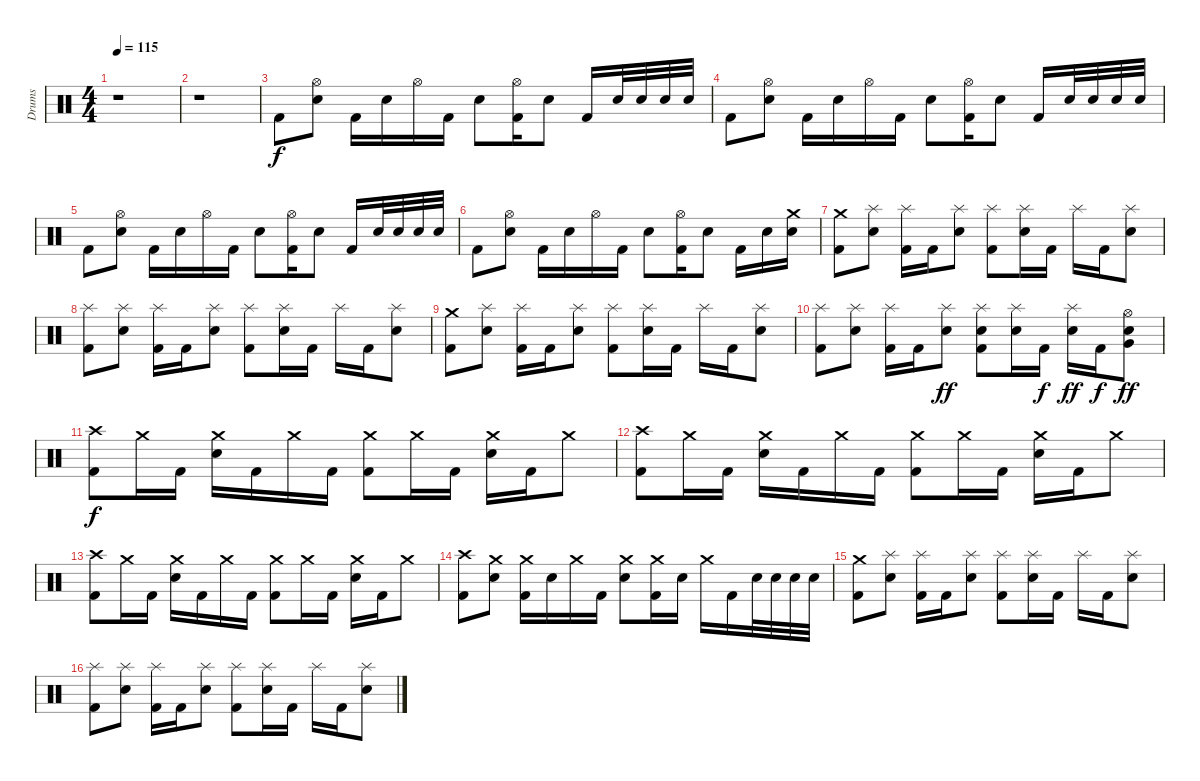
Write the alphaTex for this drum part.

\track ("Drums" "Drums") {instrument percussion}
\staff {score}
\articulation defaults
\ts (4 4)
\tempo 115
\clef neutral
\ks c
r.1{dy f} |
r.1 |
"Kick (hit) 2".8{volume 11} ("Hi-Hat (open)" "Electric Snare (hit)").8 "Kick (hit) 2".16 "Electric Snare (hit)".16 "Hi-Hat (open)".16 "Kick (hit) 2".16 "Electric Snare (hit)".8 ("Hi-Hat (open)" "Kick (hit) 2").16 "Electric Snare (hit)".8 "Kick (hit) 2".16 "Electric Snare (hit)".32 "Electric Snare (hit)".32 "Electric Snare (hit)".32 "Electric Snare (hit)".32 |
"Kick (hit) 2".8 ("Hi-Hat (open)" "Electric Snare (hit)").8 "Kick (hit) 2".16 "Electric Snare (hit)".16 "Hi-Hat (open)".16 "Kick (hit) 2".16 "Electric Snare (hit)".8 ("Hi-Hat (open)" "Kick (hit) 2").16 "Electric Snare (hit)".8 "Kick (hit) 2".16 "Electric Snare (hit)".32 "Electric Snare (hit)".32 "Electric Snare (hit)".32 "Electric Snare (hit)".32 |
"Kick (hit) 2".8 ("Hi-Hat (open)" "Electric Snare (hit)").8 "Kick (hit) 2".16 "Electric Snare (hit)".16 "Hi-Hat (open)".16 "Kick (hit) 2".16 "Electric Snare (hit)".8 ("Hi-Hat (open)" "Kick (hit) 2").16 "Electric Snare (hit)".8 "Kick (hit) 2".16 "Electric Snare (hit)".32 "Electric Snare (hit)".32 "Electric Snare (hit)".32 "Electric Snare (hit)".32 |
"Kick (hit) 2".8 ("Hi-Hat (open)" "Electric Snare (hit)").8 "Kick (hit) 2".16 "Electric Snare (hit)".16 "Hi-Hat (open)".16 "Kick (hit) 2".16 "Electric Snare (hit)".8 ("Hi-Hat (open)" "Kick (hit) 2").16 "Electric Snare (hit)".8 "Kick (hit) 2".16 "Electric Snare (hit)".16 ("Crash medium (hit)" "Electric Snare (hit)").16 |
("Crash medium (hit)" "Kick (hit) 2").8{volume 13} ("Splash (hit)" "Electric Snare (hit)").8 ("Splash (hit)" "Kick (hit) 2").16 "Kick (hit) 2".16 ("Splash (hit)" "Electric Snare (hit)").8 ("Splash (hit)" "Kick (hit) 2").8 ("Splash (hit)" "Electric Snare (hit)").16 "Kick (hit) 2".16 "Splash (hit)".16 "Kick (hit) 2".16 ("Splash (hit)" "Electric Snare (hit)").8 |
("Splash (hit)" "Kick (hit) 2").8 ("Splash (hit)" "Electric Snare (hit)").8 ("Splash (hit)" "Kick (hit) 2").16 "Kick (hit) 2".16 ("Splash (hit)" "Electric Snare (hit)").8 ("Splash (hit)" "Kick (hit) 2").8 ("Splash (hit)" "Electric Snare (hit)").16 "Kick (hit) 2".16 "Splash (hit)".16 "Kick (hit) 2".16 ("Splash (hit)" "Electric Snare (hit)").8 |
("Crash medium (hit)" "Kick (hit) 2").8 ("Splash (hit)" "Electric Snare (hit)").8 ("Splash (hit)" "Kick (hit) 2").16 "Kick (hit) 2".16 ("Splash (hit)" "Electric Snare (hit)").8 ("Splash (hit)" "Kick (hit) 2").8 ("Splash (hit)" "Electric Snare (hit)").16 "Kick (hit) 2".16 "Splash (hit)".16 "Kick (hit) 2".16 ("Splash (hit)" "Electric Snare (hit)").8 |
("Splash (hit)" "Kick (hit) 2").8 ("Splash (hit)" "Electric Snare (hit)").8 ("Splash (hit)" "Kick (hit) 2").16 "Kick (hit) 2".16 ("Splash (hit)" "Electric Snare (hit)").8{dy ff} ("Splash (hit)" "Electric Snare (hit)" "Kick (hit) 2").8 ("Splash (hit)" "Electric Snare (hit)").16 "Kick (hit) 2".16{dy f} ("Splash (hit)" "Electric Snare (hit)").16{dy ff} "Kick (hit) 2".16{dy f} ("Snare (hit) 2" "Hi-Hat (open)" "Very Low Tom (hit)").8{dy ff} |
("Crash high (hit)" "Kick (hit) 2").8{dy f volume 16} "Crash medium (hit)".16 "Kick (hit) 2".16 ("Crash medium (hit)" "Electric Snare (hit)").16 "Kick (hit) 2".16 "Crash medium (hit)".16 "Kick (hit) 2".16 ("Crash medium (hit)" "Kick (hit) 2").8 "Crash medium (hit)".16 "Kick (hit) 2".16 ("Crash medium (hit)" "Electric Snare (hit)").16 "Kick (hit) 2".16 "Crash medium (hit)".8 |
("Crash high (hit)" "Kick (hit) 2").8 "Crash medium (hit)".16 "Kick (hit) 2".16 ("Crash medium (hit)" "Electric Snare (hit)").16 "Kick (hit) 2".16 "Crash medium (hit)".16 "Kick (hit) 2".16 ("Crash medium (hit)" "Kick (hit) 2").8 "Crash medium (hit)".16 "Kick (hit) 2".16 ("Crash medium (hit)" "Electric Snare (hit)").16 "Kick (hit) 2".16 "Crash medium (hit)".8 |
("Crash high (hit)" "Kick (hit) 2").8 "Crash medium (hit)".16 "Kick (hit) 2".16 ("Crash medium (hit)" "Electric Snare (hit)").16 "Kick (hit) 2".16 "Crash medium (hit)".16 "Kick (hit) 2".16 ("Crash medium (hit)" "Kick (hit) 2").8 "Crash medium (hit)".16 "Kick (hit) 2".16 ("Crash medium (hit)" "Electric Snare (hit)").16 "Kick (hit) 2".16 "Crash medium (hit)".8 |
("Crash high (hit)" "Kick (hit) 2").8 ("Crash medium (hit)" "Electric Snare (hit)").8 ("Crash medium (hit)" "Kick (hit) 2").16 "Electric Snare (hit)".16 "Crash medium (hit)".16 "Kick (hit) 2".16 ("Crash medium (hit)" "Electric Snare (hit)").8 ("Crash medium (hit)" "Kick (hit) 2").16 "Electric Snare (hit)".16 "Crash medium (hit)".16 "Kick (hit) 2".16 "Electric Snare (hit)".32 "Electric Snare (hit)".32 "Electric Snare (hit)".32 "Electric Snare (hit)".32 |
("Crash medium (hit)" "Kick (hit) 2").8{volume 13} ("Splash (hit)" "Electric Snare (hit)").8 ("Splash (hit)" "Kick (hit) 2").16 "Kick (hit) 2".16 ("Splash (hit)" "Electric Snare (hit)").8 ("Splash (hit)" "Kick (hit) 2").8 ("Splash (hit)" "Electric Snare (hit)").16 "Kick (hit) 2".16 "Splash (hit)".16 "Kick (hit) 2".16 ("Splash (hit)" "Electric Snare (hit)").8 |
("Splash (hit)" "Kick (hit) 2").8 ("Splash (hit)" "Electric Snare (hit)").8 ("Splash (hit)" "Kick (hit) 2").16 "Kick (hit) 2".16 ("Splash (hit)" "Electric Snare (hit)").8 ("Splash (hit)" "Kick (hit) 2").8 ("Splash (hit)" "Electric Snare (hit)").16 "Kick (hit) 2".16 "Splash (hit)".16 "Kick (hit) 2".16 ("Splash (hit)" "Electric Snare (hit)").8
